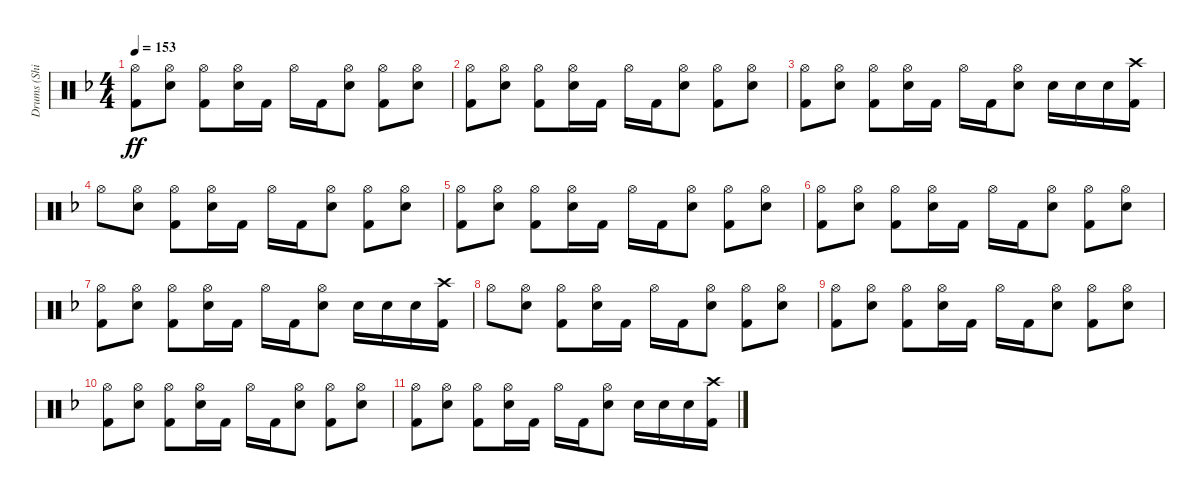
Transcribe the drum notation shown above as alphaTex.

\track ("Drums (Shinya ! Shinya !)" "Drums (Shi") {instrument percussion}
\staff {score}
\articulation defaults
\ts (4 4)
\tempo 153
\clef neutral
\ks f
("Kick (hit) 2" "Hi-Hat (open)").8{dy ff} ("Electric Snare (hit)" "Hi-Hat (open)").8 ("Kick (hit) 2" "Hi-Hat (open)").8 ("Electric Snare (hit)" "Hi-Hat (open)").16 "Kick (hit) 2".16 "Hi-Hat (open)".16 "Kick (hit) 2".16 ("Electric Snare (hit)" "Hi-Hat (open)").8 ("Kick (hit) 2" "Hi-Hat (open)").8 ("Electric Snare (hit)" "Hi-Hat (open)").8 |
("Kick (hit) 2" "Hi-Hat (open)").8 ("Electric Snare (hit)" "Hi-Hat (open)").8 ("Kick (hit) 2" "Hi-Hat (open)").8 ("Electric Snare (hit)" "Hi-Hat (open)").16 "Kick (hit) 2".16 "Hi-Hat (open)".16 "Kick (hit) 2".16 ("Electric Snare (hit)" "Hi-Hat (open)").8 ("Kick (hit) 2" "Hi-Hat (open)").8 ("Electric Snare (hit)" "Hi-Hat (open)").8 |
("Kick (hit) 2" "Hi-Hat (open)").8 ("Electric Snare (hit)" "Hi-Hat (open)").8 ("Kick (hit) 2" "Hi-Hat (open)").8 ("Electric Snare (hit)" "Hi-Hat (open)").16 "Kick (hit) 2".16 "Hi-Hat (open)".16 "Kick (hit) 2".16 ("Electric Snare (hit)" "Hi-Hat (open)").8 "Electric Snare (hit)".16 "Electric Snare (hit)".16 "Electric Snare (hit)".16 ("Crash high (hit)" "Kick (hit) 2").16 |
"Hi-Hat (open)".8 ("Electric Snare (hit)" "Hi-Hat (open)").8 ("Kick (hit) 2" "Hi-Hat (open)").8 ("Electric Snare (hit)" "Hi-Hat (open)").16 "Kick (hit) 2".16 "Hi-Hat (open)".16 "Kick (hit) 2".16 ("Electric Snare (hit)" "Hi-Hat (open)").8 ("Kick (hit) 2" "Hi-Hat (open)").8 ("Electric Snare (hit)" "Hi-Hat (open)").8 |
("Kick (hit) 2" "Hi-Hat (open)").8 ("Electric Snare (hit)" "Hi-Hat (open)").8 ("Kick (hit) 2" "Hi-Hat (open)").8 ("Electric Snare (hit)" "Hi-Hat (open)").16 "Kick (hit) 2".16 "Hi-Hat (open)".16 "Kick (hit) 2".16 ("Electric Snare (hit)" "Hi-Hat (open)").8 ("Kick (hit) 2" "Hi-Hat (open)").8 ("Electric Snare (hit)" "Hi-Hat (open)").8 |
("Kick (hit) 2" "Hi-Hat (open)").8 ("Electric Snare (hit)" "Hi-Hat (open)").8 ("Kick (hit) 2" "Hi-Hat (open)").8 ("Electric Snare (hit)" "Hi-Hat (open)").16 "Kick (hit) 2".16 "Hi-Hat (open)".16 "Kick (hit) 2".16 ("Electric Snare (hit)" "Hi-Hat (open)").8 ("Kick (hit) 2" "Hi-Hat (open)").8 ("Electric Snare (hit)" "Hi-Hat (open)").8 |
("Kick (hit) 2" "Hi-Hat (open)").8 ("Electric Snare (hit)" "Hi-Hat (open)").8 ("Kick (hit) 2" "Hi-Hat (open)").8 ("Electric Snare (hit)" "Hi-Hat (open)").16 "Kick (hit) 2".16 "Hi-Hat (open)".16 "Kick (hit) 2".16 ("Electric Snare (hit)" "Hi-Hat (open)").8 "Electric Snare (hit)".16 "Electric Snare (hit)".16 "Electric Snare (hit)".16 ("Crash high (hit)" "Kick (hit) 2").16 |
"Hi-Hat (open)".8 ("Electric Snare (hit)" "Hi-Hat (open)").8 ("Kick (hit) 2" "Hi-Hat (open)").8 ("Electric Snare (hit)" "Hi-Hat (open)").16 "Kick (hit) 2".16 "Hi-Hat (open)".16 "Kick (hit) 2".16 ("Electric Snare (hit)" "Hi-Hat (open)").8 ("Kick (hit) 2" "Hi-Hat (open)").8 ("Electric Snare (hit)" "Hi-Hat (open)").8 |
("Kick (hit) 2" "Hi-Hat (open)").8 ("Electric Snare (hit)" "Hi-Hat (open)").8 ("Kick (hit) 2" "Hi-Hat (open)").8 ("Electric Snare (hit)" "Hi-Hat (open)").16 "Kick (hit) 2".16 "Hi-Hat (open)".16 "Kick (hit) 2".16 ("Electric Snare (hit)" "Hi-Hat (open)").8 ("Kick (hit) 2" "Hi-Hat (open)").8 ("Electric Snare (hit)" "Hi-Hat (open)").8 |
("Kick (hit) 2" "Hi-Hat (open)").8 ("Electric Snare (hit)" "Hi-Hat (open)").8 ("Kick (hit) 2" "Hi-Hat (open)").8 ("Electric Snare (hit)" "Hi-Hat (open)").16 "Kick (hit) 2".16 "Hi-Hat (open)".16 "Kick (hit) 2".16 ("Electric Snare (hit)" "Hi-Hat (open)").8 ("Kick (hit) 2" "Hi-Hat (open)").8 ("Electric Snare (hit)" "Hi-Hat (open)").8 |
("Kick (hit) 2" "Hi-Hat (open)").8 ("Electric Snare (hit)" "Hi-Hat (open)").8 ("Kick (hit) 2" "Hi-Hat (open)").8 ("Electric Snare (hit)" "Hi-Hat (open)").16 "Kick (hit) 2".16 "Hi-Hat (open)".16 "Kick (hit) 2".16 ("Electric Snare (hit)" "Hi-Hat (open)").8 "Electric Snare (hit)".16 "Electric Snare (hit)".16 "Electric Snare (hit)".16 ("Kick (hit) 2" "Crash high (hit)").16
